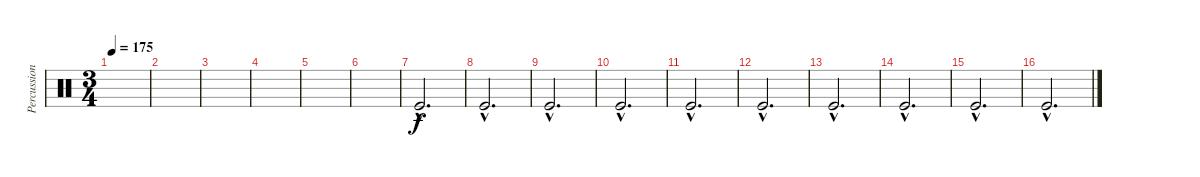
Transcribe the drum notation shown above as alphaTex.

\track ("Percussion" "Percussion") {instrument percussion}
\staff {score}
\articulation defaults
\ts (3 4)
\tempo 175
\clef neutral
\ks c
|
|
|
|
|
|
"Kick (hit)"{hac}.2{d} |
"Kick (hit)"{hac}.2{d} |
"Kick (hit)"{hac}.2{d} |
"Kick (hit)"{hac}.2{d} |
"Kick (hit)"{hac}.2{d} |
"Kick (hit)"{hac}.2{d} |
"Kick (hit)"{hac}.2{d} |
"Kick (hit)"{hac}.2{d} |
"Kick (hit)"{hac}.2{d} |
"Kick (hit)"{hac}.2{d}
